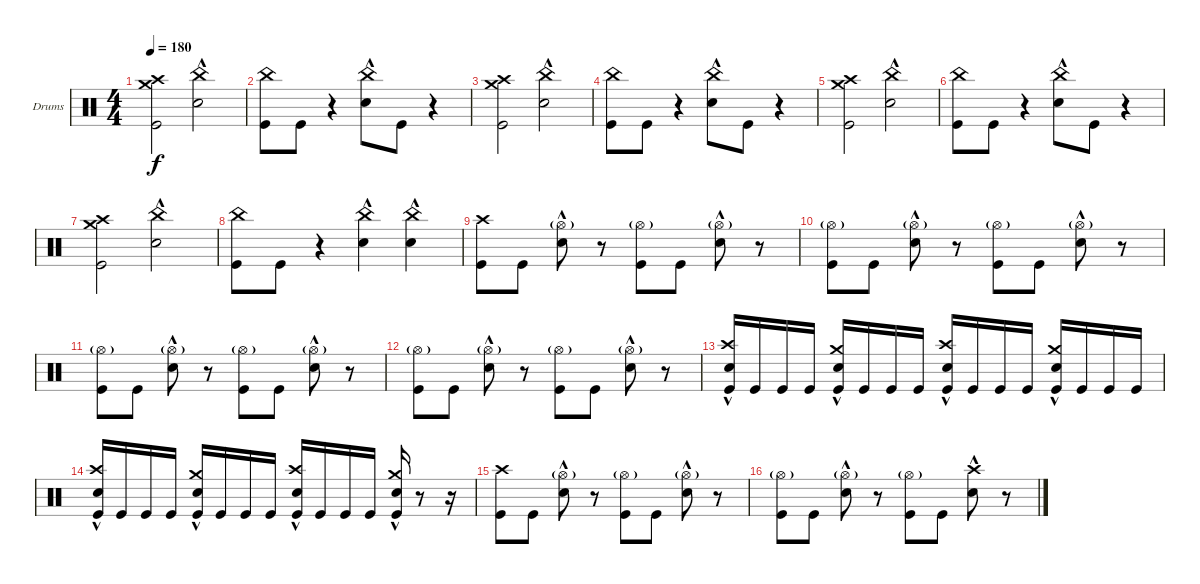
\bracketExtendMode groupsimilarinstruments
\firstSystemTrackNameOrientation horizontal
\otherSystemsTrackNameOrientation horizontal
\track ("Drumkit" "Drums") {instrument percussion}
\staff {score}
\articulation defaults
\ts (4 4)
\tempo 180
\clef neutral
\scale
0.474178
\ks c
("Kick (hit)" "Crash medium (hit)" "Crash high (hit)").2{dy f} ("Snare (hit) 2"{hac} "China (hit)").2 |
\scale
0.262911 ("China (hit)" "Kick (hit)").8 "Kick (hit)".8 r.4 ("China (hit)" "Snare (hit) 2"{hac}).8 "Kick (hit)".8 r.4 |
\scale
0.262911 ("Kick (hit)" "Crash medium (hit)" "Crash high (hit)").2 ("Snare (hit) 2"{hac} "China (hit)").2 |
\scale
0.333333 ("China (hit)" "Kick (hit)").8 "Kick (hit)".8 r.4 ("China (hit)" "Snare (hit) 2"{hac}).8 "Kick (hit)".8 r.4 |
\scale
0.333333 ("Kick (hit)" "Crash medium (hit)" "Crash high (hit)").2 ("Snare (hit) 2"{hac} "China (hit)").2 |
\scale
0.333333 ("China (hit)" "Kick (hit)").8 "Kick (hit)".8 r.4 ("China (hit)" "Snare (hit) 2"{hac}).8 "Kick (hit)".8 r.4 |
\scale
0.333333 ("Kick (hit)" "Crash medium (hit)" "Crash high (hit)").2 ("Snare (hit) 2"{hac} "China (hit)").2 |
\scale
0.333333 ("China (hit)" "Kick (hit)").8 "Kick (hit)".8 r.4 ("China (hit)" "Snare (hit) 2"{hac}).4 ("Snare (hit) 2"{hac} "China (hit)").4 |
\scale
0.333333 ("Crash high (hit)" "Kick (hit)").8 "Kick (hit)".8 ("Hi-Hat (open)"{g} "Snare (hit) 2"{hac}).8 r.8 ("Hi-Hat (open)"{g} "Kick (hit)").8 "Kick (hit)".8 ("Hi-Hat (open)"{g} "Snare (hit) 2"{hac}).8 r.8 |
\scale
0.333333 ("Kick (hit)" "Hi-Hat (open)"{g}).8 "Kick (hit)".8 ("Hi-Hat (open)"{g} "Snare (hit) 2"{hac}).8 r.8 ("Hi-Hat (open)"{g} "Kick (hit)").8 "Kick (hit)".8 ("Hi-Hat (open)"{g} "Snare (hit) 2"{hac}).8 r.8 |
\scale
0.333333 ("Kick (hit)" "Hi-Hat (open)"{g}).8 "Kick (hit)".8 ("Hi-Hat (open)"{g} "Snare (hit) 2"{hac}).8 r.8 ("Hi-Hat (open)"{g} "Kick (hit)").8 "Kick (hit)".8 ("Hi-Hat (open)"{g} "Snare (hit) 2"{hac}).8 r.8 |
\scale
0.333333 ("Kick (hit)" "Hi-Hat (open)"{g}).8 "Kick (hit)".8 ("Hi-Hat (open)"{g} "Snare (hit) 2"{hac}).8 r.8 ("Hi-Hat (open)"{g} "Kick (hit)").8 "Kick (hit)".8 ("Hi-Hat (open)"{g} "Snare (hit) 2"{hac}).8 r.8 |
\scale
0.333333 ("Kick (hit)" "Snare (hit) 2"{hac} "Crash high (hit)").16 "Kick (hit)".16 "Kick (hit)".16 "Kick (hit)".16 ("Kick (hit)" "Snare (hit) 2"{hac} "Crash medium (hit)").16 "Kick (hit)".16 "Kick (hit)".16 "Kick (hit)".16 ("Kick (hit)" "Snare (hit) 2"{hac} "Crash high (hit)").16 "Kick (hit)".16 "Kick (hit)".16 "Kick (hit)".16 ("Kick (hit)" "Snare (hit) 2"{hac} "Crash medium (hit)").16 "Kick (hit)".16 "Kick (hit)".16 "Kick (hit)".16 |
\scale
0.333333 ("Kick (hit)" "Snare (hit) 2"{hac} "Crash high (hit)").16 "Kick (hit)".16 "Kick (hit)".16 "Kick (hit)".16 ("Kick (hit)" "Snare (hit) 2"{hac} "Crash medium (hit)").16 "Kick (hit)".16 "Kick (hit)".16 "Kick (hit)".16 ("Kick (hit)" "Snare (hit) 2"{hac} "Crash high (hit)").16 "Kick (hit)".16 "Kick (hit)".16 "Kick (hit)".16 ("Kick (hit)" "Snare (hit) 2"{hac} "Crash medium (hit)").16 r.8 r.16 |
\scale
0.333333 ("Crash high (hit)" "Kick (hit)").8 "Kick (hit)".8 ("Hi-Hat (open)"{g} "Snare (hit) 2"{hac}).8 r.8 ("Hi-Hat (open)"{g} "Kick (hit)").8 "Kick (hit)".8 ("Hi-Hat (open)"{g} "Snare (hit) 2"{hac}).8 r.8 |
\scale
0.333333 ("Kick (hit)" "Hi-Hat (open)"{g}).8 "Kick (hit)".8 ("Hi-Hat (open)"{g} "Snare (hit) 2"{hac}).8 r.8 ("Hi-Hat (open)"{g} "Kick (hit)").8 "Kick (hit)".8 ("Snare (hit) 2"{hac} "Crash high (hit)").8 r.8
